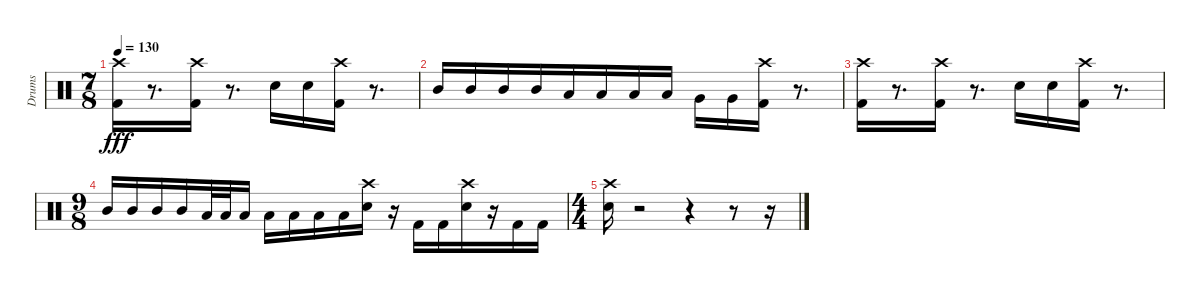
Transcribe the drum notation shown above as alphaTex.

\track ("Drums" "Drums") {instrument percussion}
\staff {score}
\articulation defaults
\ts (7 8)
\tempo 130
\clef neutral
\ks c
("Kick (hit) 2" "Crash high (hit)").16{dy fff} r.8{d} ("Kick (hit) 2" "Crash high (hit)").16 r.8{d} "Electric Snare (hit)".16 "Electric Snare (hit)".16 ("Kick (hit) 2" "Crash high (hit)").16 r.8{d} |
"Mid Tom (hit)".16 "Mid Tom (hit)".16 "Mid Tom (hit)".16 "Mid Tom (hit)".16 "Low Tom (hit)".16 "Low Tom (hit)".16 "Low Tom (hit)".16 "Low Tom (hit)".16 "Very Low Tom (hit)".16 "Very Low Tom (hit)".16 ("Kick (hit) 2" "Crash high (hit)").16 r.8{d} |
("Kick (hit) 2" "Crash high (hit)").16 r.8{d} ("Kick (hit) 2" "Crash high (hit)").16 r.8{d} "Electric Snare (hit)".16 "Electric Snare (hit)".16 ("Kick (hit) 2" "Crash high (hit)").16 r.8{d} |
\ts (9 8)
"Mid Tom (hit)".16 "Mid Tom (hit)".16 "Mid Tom (hit)".16 "Mid Tom (hit)".16 "Low Tom (hit)".32 "Low Tom (hit)".32 "Low Tom (hit)".16 "Low Tom (hit)".16 "Low Tom (hit)".16 "Low Floor Tom (hit)".16 "Low Floor Tom (hit)".16 ("Electric Snare (hit)" "Crash high (hit)").16 r.16 "Kick (hit) 2".16 "Kick (hit) 2".16 ("Electric Snare (hit)" "Crash high (hit)").16 r.16 "Kick (hit) 2".16 "Kick (hit) 2".16 |
\ts (4 4)
("Crash high (hit)" "Electric Snare (hit)").16 r.2 r.4 r.8 r.16
